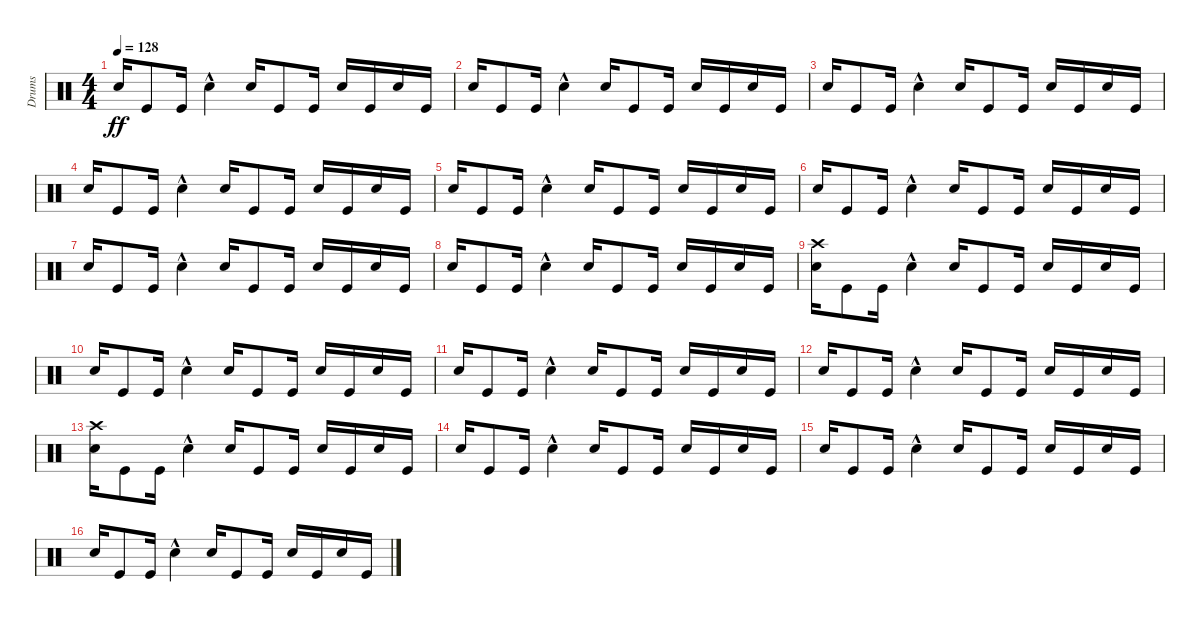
\track ("Drums" "Drums") {instrument percussion}
\staff {score}
\articulation defaults
\ts (4 4)
\tempo 128
\clef neutral
\ks c "Snare (hit) 2".16{dy ff} "Kick (hit)".8 "Kick (hit)".16 "Snare (hit) 2"{hac}.4 "Snare (hit) 2".16 "Kick (hit)".8 "Kick (hit)".16 "Snare (hit) 2".16 "Kick (hit)".16 "Snare (hit) 2".16 "Kick (hit)".16
|
"Snare (hit) 2".16 "Kick (hit)".8 "Kick (hit)".16 "Snare (hit) 2"{hac}.4 "Snare (hit) 2".16 "Kick (hit)".8 "Kick (hit)".16 "Snare (hit) 2".16 "Kick (hit)".16 "Snare (hit) 2".16 "Kick (hit)".16 |
"Snare (hit) 2".16 "Kick (hit)".8 "Kick (hit)".16 "Snare (hit) 2"{hac}.4 "Snare (hit) 2".16 "Kick (hit)".8 "Kick (hit)".16 "Snare (hit) 2".16 "Kick (hit)".16 "Snare (hit) 2".16 "Kick (hit)".16 |
"Snare (hit) 2".16 "Kick (hit)".8 "Kick (hit)".16 "Snare (hit) 2"{hac}.4 "Snare (hit) 2".16 "Kick (hit)".8 "Kick (hit)".16 "Snare (hit) 2".16 "Kick (hit)".16 "Snare (hit) 2".16 "Kick (hit)".16 |
"Snare (hit) 2".16 "Kick (hit)".8 "Kick (hit)".16 "Snare (hit) 2"{hac}.4 "Snare (hit) 2".16 "Kick (hit)".8 "Kick (hit)".16 "Snare (hit) 2".16 "Kick (hit)".16 "Snare (hit) 2".16 "Kick (hit)".16 |
"Snare (hit) 2".16 "Kick (hit)".8 "Kick (hit)".16 "Snare (hit) 2"{hac}.4 "Snare (hit) 2".16 "Kick (hit)".8 "Kick (hit)".16 "Snare (hit) 2".16 "Kick (hit)".16 "Snare (hit) 2".16 "Kick (hit)".16 |
"Snare (hit) 2".16 "Kick (hit)".8 "Kick (hit)".16 "Snare (hit) 2"{hac}.4 "Snare (hit) 2".16 "Kick (hit)".8 "Kick (hit)".16 "Snare (hit) 2".16 "Kick (hit)".16 "Snare (hit) 2".16 "Kick (hit)".16 |
"Snare (hit) 2".16 "Kick (hit)".8 "Kick (hit)".16 "Snare (hit) 2"{hac}.4 "Snare (hit) 2".16 "Kick (hit)".8 "Kick (hit)".16 "Snare (hit) 2".16 "Kick (hit)".16 "Snare (hit) 2".16 "Kick (hit)".16 |
("Snare (hit) 2" "Crash high (hit)").16 "Kick (hit)".8 "Kick (hit)".16 "Snare (hit) 2"{hac}.4 "Snare (hit) 2".16 "Kick (hit)".8 "Kick (hit)".16 "Snare (hit) 2".16 "Kick (hit)".16 "Snare (hit) 2".16 "Kick (hit)".16 |
"Snare (hit) 2".16 "Kick (hit)".8 "Kick (hit)".16 "Snare (hit) 2"{hac}.4 "Snare (hit) 2".16 "Kick (hit)".8 "Kick (hit)".16 "Snare (hit) 2".16 "Kick (hit)".16 "Snare (hit) 2".16 "Kick (hit)".16 |
"Snare (hit) 2".16 "Kick (hit)".8 "Kick (hit)".16 "Snare (hit) 2"{hac}.4 "Snare (hit) 2".16 "Kick (hit)".8 "Kick (hit)".16 "Snare (hit) 2".16 "Kick (hit)".16 "Snare (hit) 2".16 "Kick (hit)".16 |
"Snare (hit) 2".16 "Kick (hit)".8 "Kick (hit)".16 "Snare (hit) 2"{hac}.4 "Snare (hit) 2".16 "Kick (hit)".8 "Kick (hit)".16 "Snare (hit) 2".16 "Kick (hit)".16 "Snare (hit) 2".16 "Kick (hit)".16 |
("Snare (hit) 2" "Crash high (hit)").16 "Kick (hit)".8 "Kick (hit)".16 "Snare (hit) 2"{hac}.4 "Snare (hit) 2".16 "Kick (hit)".8 "Kick (hit)".16 "Snare (hit) 2".16 "Kick (hit)".16 "Snare (hit) 2".16 "Kick (hit)".16 |
"Snare (hit) 2".16 "Kick (hit)".8 "Kick (hit)".16 "Snare (hit) 2"{hac}.4 "Snare (hit) 2".16 "Kick (hit)".8 "Kick (hit)".16 "Snare (hit) 2".16 "Kick (hit)".16 "Snare (hit) 2".16 "Kick (hit)".16 |
"Snare (hit) 2".16 "Kick (hit)".8 "Kick (hit)".16 "Snare (hit) 2"{hac}.4 "Snare (hit) 2".16 "Kick (hit)".8 "Kick (hit)".16 "Snare (hit) 2".16 "Kick (hit)".16 "Snare (hit) 2".16 "Kick (hit)".16 |
"Snare (hit) 2".16 "Kick (hit)".8 "Kick (hit)".16 "Snare (hit) 2"{hac}.4 "Snare (hit) 2".16 "Kick (hit)".8 "Kick (hit)".16 "Snare (hit) 2".16 "Kick (hit)".16 "Snare (hit) 2".16 "Kick (hit)".16
